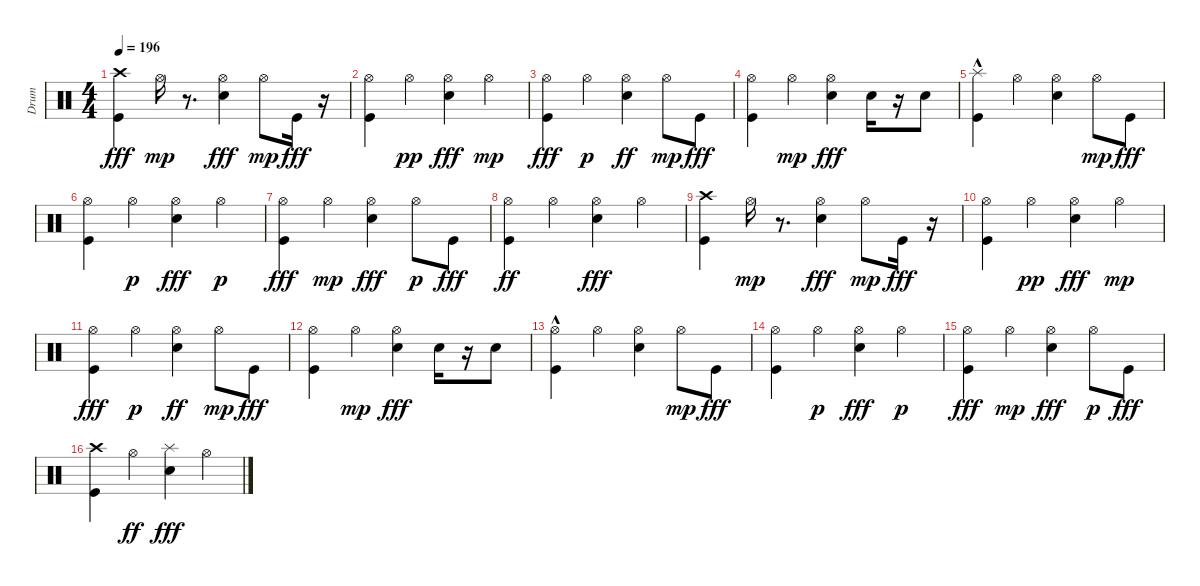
\track ("Drum" "Drum") {instrument percussion}
\staff {score}
\articulation defaults
\ts (4 4)
\tempo 196
\clef neutral
\ks c
("Crash high (hit)" "Kick (hit)").4{dy fff} "Hi-Hat (open)".16{dy mp} r.8{d} ("Hi-Hat (open)" "Snare (hit) 2").4{dy fff} "Hi-Hat (open)".8{dy mp} "Kick (hit)".16{dy fff} r.16 |
("Kick (hit)" "Hi-Hat (open)").4 "Hi-Hat (open)".4{dy pp} ("Hi-Hat (open)" "Snare (hit) 2").4{dy fff} "Hi-Hat (open)".4{dy mp} |
("Kick (hit)" "Hi-Hat (open)").4{dy fff} "Hi-Hat (open)".4{dy p} ("Snare (hit) 2" "Hi-Hat (open)").4{dy ff} "Hi-Hat (open)".8{dy mp} "Kick (hit)".8{dy fff} |
("Kick (hit)" "Hi-Hat (open)").4 "Hi-Hat (open)".4{dy mp} ("Hi-Hat (open)" "Snare (hit) 2").4{dy fff} "Snare (hit) 2".16 r.16 "Snare (hit) 2".8 |
("Splash (hit)" "Kick (hit)"{hac}).4 "Hi-Hat (open)".4 ("Hi-Hat (open)" "Snare (hit) 2").4 "Hi-Hat (open)".8{dy mp} "Kick (hit)".8{dy fff} |
("Kick (hit)" "Hi-Hat (open)").4 "Hi-Hat (open)".4{dy p} ("Snare (hit) 2" "Hi-Hat (open)").4{dy fff} "Hi-Hat (open)".4{dy p} |
("Kick (hit)" "Hi-Hat (open)").4{dy fff} "Hi-Hat (open)".4{dy mp} ("Hi-Hat (open)" "Snare (hit) 2").4{dy fff} "Hi-Hat (open)".8{dy p} "Kick (hit)".8{dy fff} |
("Kick (hit)" "Hi-Hat (open)").4{dy ff} "Hi-Hat (open)".4 ("Hi-Hat (open)" "Snare (hit) 2").4{dy fff} "Hi-Hat (open)".4 |
("Crash high (hit)" "Kick (hit)").4 "Hi-Hat (open)".16{dy mp} r.8{d} ("Hi-Hat (open)" "Snare (hit) 2").4{dy fff} "Hi-Hat (open)".8{dy mp} "Kick (hit)".16{dy fff} r.16 |
("Kick (hit)" "Hi-Hat (open)").4 "Hi-Hat (open)".4{dy pp} ("Hi-Hat (open)" "Snare (hit) 2").4{dy fff} "Hi-Hat (open)".4{dy mp} |
("Kick (hit)" "Hi-Hat (open)").4{dy fff} "Hi-Hat (open)".4{dy p} ("Snare (hit) 2" "Hi-Hat (open)").4{dy ff} "Hi-Hat (open)".8{dy mp} "Kick (hit)".8{dy fff} |
("Kick (hit)" "Hi-Hat (open)").4 "Hi-Hat (open)".4{dy mp} ("Hi-Hat (open)" "Snare (hit) 2").4{dy fff} "Snare (hit) 2".16 r.16 "Snare (hit) 2".8 |
("Kick (hit)"{hac} "Hi-Hat (open)").4 "Hi-Hat (open)".4 ("Hi-Hat (open)" "Snare (hit) 2").4 "Hi-Hat (open)".8{dy mp} "Kick (hit)".8{dy fff} |
("Kick (hit)" "Hi-Hat (open)").4 "Hi-Hat (open)".4{dy p} ("Snare (hit) 2" "Hi-Hat (open)").4{dy fff} "Hi-Hat (open)".4{dy p} |
("Kick (hit)" "Hi-Hat (open)").4{dy fff} "Hi-Hat (open)".4{dy mp} ("Hi-Hat (open)" "Snare (hit) 2").4{dy fff} "Hi-Hat (open)".8{dy p} "Kick (hit)".8{dy fff} |
("Crash high (hit)" "Kick (hit)").4 "Hi-Hat (open)".4{dy ff} ("Splash (hit)" "Snare (hit) 2").4{dy fff} "Hi-Hat (open)".4
